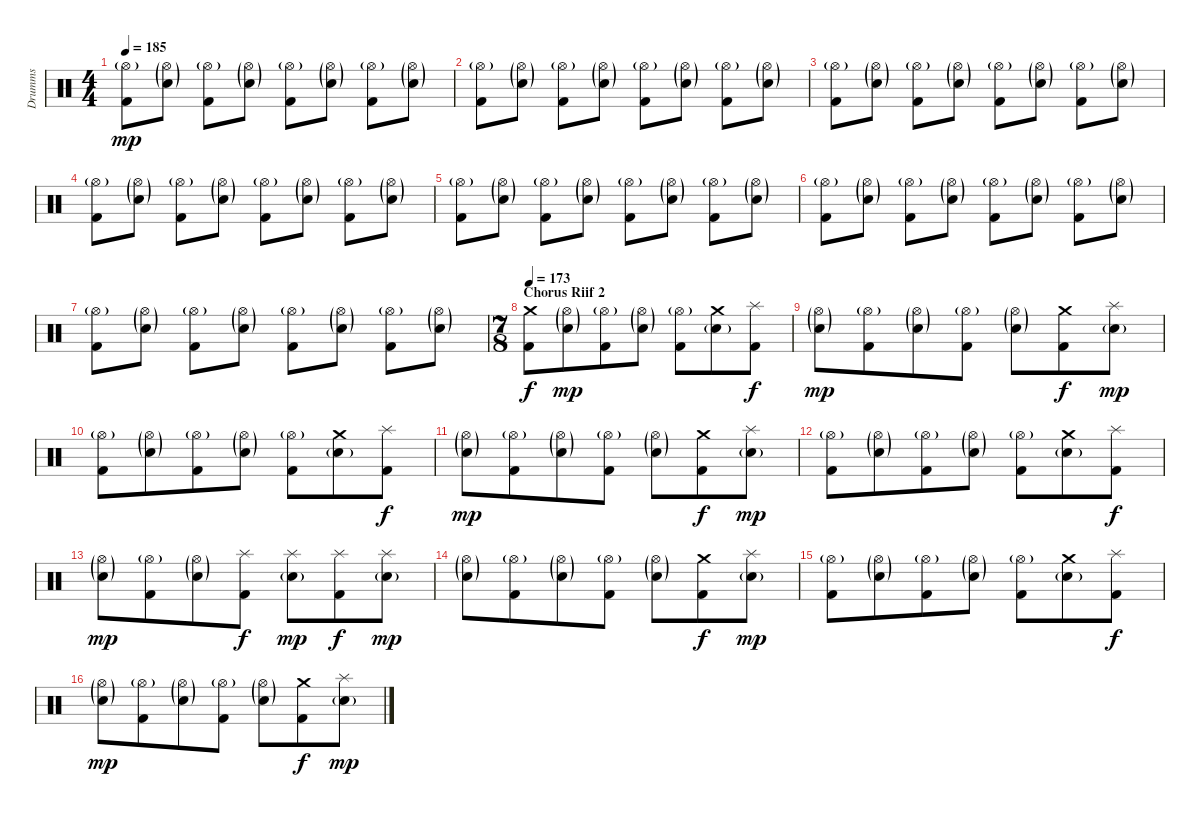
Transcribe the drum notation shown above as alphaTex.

\track ("Drumms" "Drumms") {instrument percussion}
\staff {score}
\articulation defaults
\ts (4 4)
\tempo 185
\clef neutral
\ks c
("Hi-Hat (open)"{g} "Kick (hit) 2").8{dy mp} ("Hi-Hat (open)"{g} "Snare (hit) 2"{g}).8 ("Hi-Hat (open)"{g} "Kick (hit) 2").8 ("Hi-Hat (open)"{g} "Snare (hit) 2"{g}).8 ("Hi-Hat (open)"{g} "Kick (hit) 2").8 ("Hi-Hat (open)"{g} "Snare (hit) 2"{g}).8 ("Hi-Hat (open)"{g} "Kick (hit) 2").8 ("Hi-Hat (open)"{g} "Snare (hit) 2"{g}).8 |
("Hi-Hat (open)"{g} "Kick (hit) 2").8 ("Hi-Hat (open)"{g} "Snare (hit) 2"{g}).8 ("Hi-Hat (open)"{g} "Kick (hit) 2").8 ("Hi-Hat (open)"{g} "Snare (hit) 2"{g}).8 ("Hi-Hat (open)"{g} "Kick (hit) 2").8 ("Hi-Hat (open)"{g} "Snare (hit) 2"{g}).8 ("Hi-Hat (open)"{g} "Kick (hit) 2").8 ("Hi-Hat (open)"{g} "Snare (hit) 2"{g}).8 |
("Hi-Hat (open)"{g} "Kick (hit) 2").8 ("Hi-Hat (open)"{g} "Snare (hit) 2"{g}).8 ("Hi-Hat (open)"{g} "Kick (hit) 2").8 ("Hi-Hat (open)"{g} "Snare (hit) 2"{g}).8 ("Hi-Hat (open)"{g} "Kick (hit) 2").8 ("Hi-Hat (open)"{g} "Snare (hit) 2"{g}).8 ("Hi-Hat (open)"{g} "Kick (hit) 2").8 ("Hi-Hat (open)"{g} "Snare (hit) 2"{g}).8 |
("Hi-Hat (open)"{g} "Kick (hit) 2").8 ("Hi-Hat (open)"{g} "Snare (hit) 2"{g}).8 ("Hi-Hat (open)"{g} "Kick (hit) 2").8 ("Hi-Hat (open)"{g} "Snare (hit) 2"{g}).8 ("Hi-Hat (open)"{g} "Kick (hit) 2").8 ("Hi-Hat (open)"{g} "Snare (hit) 2"{g}).8 ("Hi-Hat (open)"{g} "Kick (hit) 2").8 ("Hi-Hat (open)"{g} "Snare (hit) 2"{g}).8 |
("Hi-Hat (open)"{g} "Kick (hit) 2").8 ("Hi-Hat (open)"{g} "Snare (hit) 2"{g}).8 ("Hi-Hat (open)"{g} "Kick (hit) 2").8 ("Hi-Hat (open)"{g} "Snare (hit) 2"{g}).8 ("Hi-Hat (open)"{g} "Kick (hit) 2").8 ("Hi-Hat (open)"{g} "Snare (hit) 2"{g}).8 ("Hi-Hat (open)"{g} "Kick (hit) 2").8 ("Hi-Hat (open)"{g} "Snare (hit) 2"{g}).8 |
("Hi-Hat (open)"{g} "Kick (hit) 2").8 ("Hi-Hat (open)"{g} "Snare (hit) 2"{g}).8 ("Hi-Hat (open)"{g} "Kick (hit) 2").8 ("Hi-Hat (open)"{g} "Snare (hit) 2"{g}).8 ("Hi-Hat (open)"{g} "Kick (hit) 2").8 ("Hi-Hat (open)"{g} "Snare (hit) 2"{g}).8 ("Hi-Hat (open)"{g} "Kick (hit) 2").8 ("Hi-Hat (open)"{g} "Snare (hit) 2"{g}).8 |
("Hi-Hat (open)"{g} "Kick (hit) 2").8 ("Hi-Hat (open)"{g} "Snare (hit) 2"{g}).8 ("Hi-Hat (open)"{g} "Kick (hit) 2").8 ("Hi-Hat (open)"{g} "Snare (hit) 2"{g}).8 ("Hi-Hat (open)"{g} "Kick (hit) 2").8 ("Hi-Hat (open)"{g} "Snare (hit) 2"{g}).8 ("Hi-Hat (open)"{g} "Kick (hit) 2").8 ("Hi-Hat (open)"{g} "Snare (hit) 2"{g}).8 |
\ts (7 8)
\section ("" "Chorus Riif 2")
\tempo 173
("Crash medium (hit)" "Kick (hit) 2").8{dy f} ("Hi-Hat (open)"{g} "Snare (hit) 2"{g}).8{dy mp} ("Hi-Hat (open)"{g} "Kick (hit) 2").8 ("Hi-Hat (open)"{g} "Snare (hit) 2"{g}).8 ("Hi-Hat (open)"{g} "Kick (hit) 2").8 ("Crash medium (hit)" "Snare (hit) 2"{g}).8 ("Splash (hit)" "Kick (hit) 2").8{dy f} |
("Hi-Hat (open)"{g} "Snare (hit) 2"{g}).8{dy mp} ("Hi-Hat (open)"{g} "Kick (hit) 2").8 ("Hi-Hat (open)"{g} "Snare (hit) 2"{g}).8 ("Hi-Hat (open)"{g} "Kick (hit) 2").8 ("Hi-Hat (open)"{g} "Snare (hit) 2"{g}).8 ("Crash medium (hit)" "Kick (hit) 2").8{dy f} ("Splash (hit)" "Snare (hit) 2"{g}).8{dy mp} |
("Hi-Hat (open)"{g} "Kick (hit) 2").8 ("Hi-Hat (open)"{g} "Snare (hit) 2"{g}).8 ("Hi-Hat (open)"{g} "Kick (hit) 2").8 ("Hi-Hat (open)"{g} "Snare (hit) 2"{g}).8 ("Hi-Hat (open)"{g} "Kick (hit) 2").8 ("Crash medium (hit)" "Snare (hit) 2"{g}).8 ("Splash (hit)" "Kick (hit) 2").8{dy f} |
("Hi-Hat (open)"{g} "Snare (hit) 2"{g}).8{dy mp} ("Hi-Hat (open)"{g} "Kick (hit) 2").8 ("Hi-Hat (open)"{g} "Snare (hit) 2"{g}).8 ("Hi-Hat (open)"{g} "Kick (hit) 2").8 ("Hi-Hat (open)"{g} "Snare (hit) 2"{g}).8 ("Crash medium (hit)" "Kick (hit) 2").8{dy f} ("Splash (hit)" "Snare (hit) 2"{g}).8{dy mp} |
("Hi-Hat (open)"{g} "Kick (hit) 2").8 ("Hi-Hat (open)"{g} "Snare (hit) 2"{g}).8 ("Hi-Hat (open)"{g} "Kick (hit) 2").8 ("Hi-Hat (open)"{g} "Snare (hit) 2"{g}).8 ("Hi-Hat (open)"{g} "Kick (hit) 2").8 ("Crash medium (hit)" "Snare (hit) 2"{g}).8 ("Splash (hit)" "Kick (hit) 2").8{dy f} |
("Hi-Hat (open)"{g} "Snare (hit) 2"{g}).8{dy mp} ("Hi-Hat (open)"{g} "Kick (hit) 2").8 ("Hi-Hat (open)"{g} "Snare (hit) 2"{g}).8 ("Splash (hit)" "Kick (hit) 2").8{dy f} ("Splash (hit)" "Snare (hit) 2"{g}).8{dy mp} ("Splash (hit)" "Kick (hit) 2").8{dy f} ("Splash (hit)" "Snare (hit) 2"{g}).8{dy mp} |
("Hi-Hat (open)"{g} "Snare (hit) 2"{g}).8 ("Hi-Hat (open)"{g} "Kick (hit) 2").8 ("Hi-Hat (open)"{g} "Snare (hit) 2"{g}).8 ("Hi-Hat (open)"{g} "Kick (hit) 2").8 ("Hi-Hat (open)"{g} "Snare (hit) 2"{g}).8 ("Crash medium (hit)" "Kick (hit) 2").8{dy f} ("Splash (hit)" "Snare (hit) 2"{g}).8{dy mp} |
("Hi-Hat (open)"{g} "Kick (hit) 2").8 ("Hi-Hat (open)"{g} "Snare (hit) 2"{g}).8 ("Hi-Hat (open)"{g} "Kick (hit) 2").8 ("Hi-Hat (open)"{g} "Snare (hit) 2"{g}).8 ("Hi-Hat (open)"{g} "Kick (hit) 2").8 ("Crash medium (hit)" "Snare (hit) 2"{g}).8 ("Splash (hit)" "Kick (hit) 2").8{dy f} |
("Hi-Hat (open)"{g} "Snare (hit) 2"{g}).8{dy mp} ("Hi-Hat (open)"{g} "Kick (hit) 2").8 ("Hi-Hat (open)"{g} "Snare (hit) 2"{g}).8 ("Hi-Hat (open)"{g} "Kick (hit) 2").8 ("Hi-Hat (open)"{g} "Snare (hit) 2"{g}).8 ("Crash medium (hit)" "Kick (hit) 2").8{dy f} ("Splash (hit)" "Snare (hit) 2"{g}).8{dy mp}
